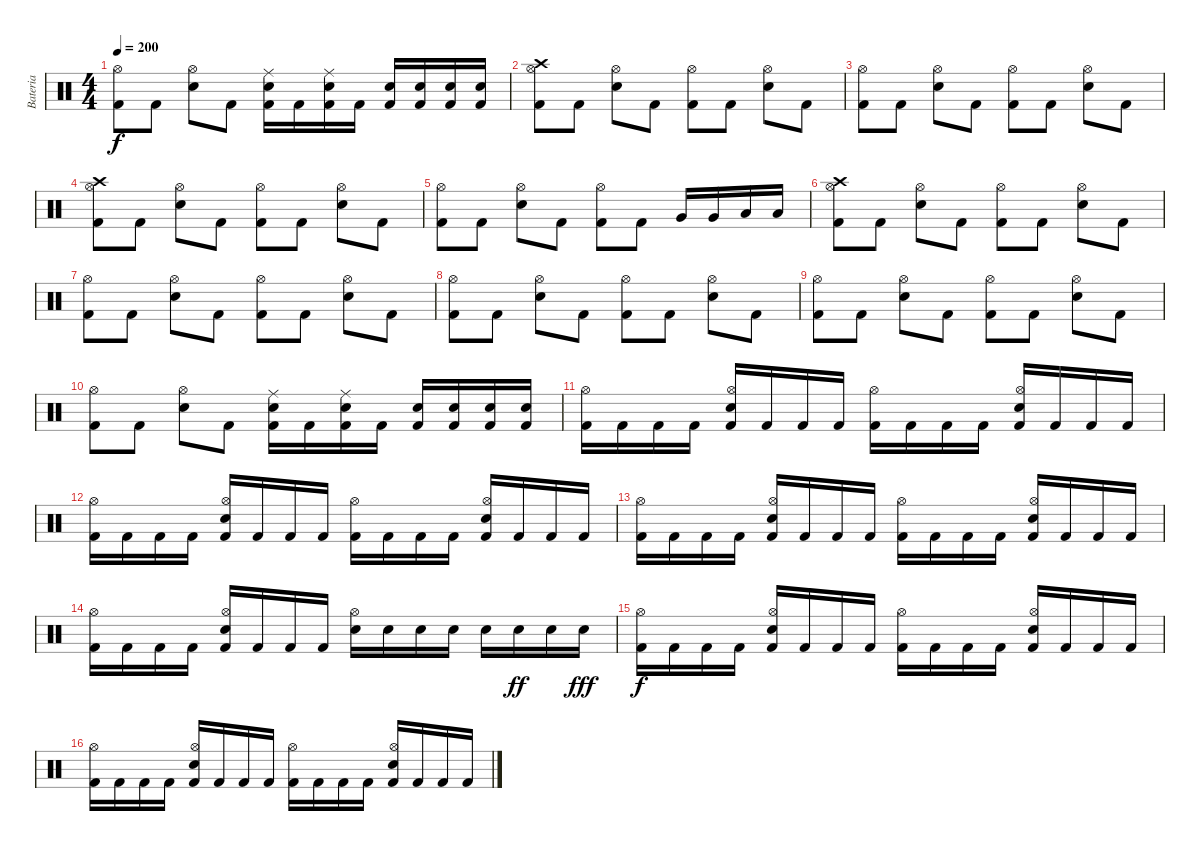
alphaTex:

\track ("Bateria" "Bateria") {instrument percussion}
\staff {score}
\articulation defaults
\ts (4 4)
\tempo 200
\clef neutral
\ks c
("Kick (hit) 2" "Hi-Hat (open)").8{dy f} "Kick (hit) 2".8 ("Electric Snare (hit)" "Hi-Hat (open)").8 "Kick (hit) 2".8 ("Kick (hit) 2" "Electric Snare (hit)" "Ride (middle)").16 "Kick (hit) 2".16 ("Kick (hit) 2" "Electric Snare (hit)" "Ride (middle)").16 "Kick (hit) 2".16 ("Kick (hit) 2" "Electric Snare (hit)").16 ("Kick (hit) 2" "Electric Snare (hit)").16 ("Kick (hit) 2" "Electric Snare (hit)").16 ("Kick (hit) 2" "Electric Snare (hit)").16 |
("Kick (hit) 2" "Hi-Hat (open)" "Crash high (hit)").8 "Kick (hit) 2".8 ("Electric Snare (hit)" "Hi-Hat (open)").8 "Kick (hit) 2".8 ("Kick (hit) 2" "Hi-Hat (open)").8 "Kick (hit) 2".8 ("Electric Snare (hit)" "Hi-Hat (open)").8 "Kick (hit) 2".8 |
("Kick (hit) 2" "Hi-Hat (open)").8 "Kick (hit) 2".8 ("Electric Snare (hit)" "Hi-Hat (open)").8 "Kick (hit) 2".8 ("Kick (hit) 2" "Hi-Hat (open)").8 "Kick (hit) 2".8 ("Electric Snare (hit)" "Hi-Hat (open)").8 "Kick (hit) 2".8 |
("Kick (hit) 2" "Hi-Hat (open)" "Crash high (hit)").8 "Kick (hit) 2".8 ("Electric Snare (hit)" "Hi-Hat (open)").8 "Kick (hit) 2".8 ("Kick (hit) 2" "Hi-Hat (open)").8 "Kick (hit) 2".8 ("Electric Snare (hit)" "Hi-Hat (open)").8 "Kick (hit) 2".8 |
("Kick (hit) 2" "Hi-Hat (open)").8 "Kick (hit) 2".8 ("Electric Snare (hit)" "Hi-Hat (open)").8 "Kick (hit) 2".8 ("Kick (hit) 2" "Hi-Hat (open)").8 "Kick (hit) 2".8 "Very Low Tom (hit)".16 "Very Low Tom (hit)".16 "Low Floor Tom (hit)".16 "Low Floor Tom (hit)".16 |
("Kick (hit) 2" "Hi-Hat (open)" "Crash high (hit)").8 "Kick (hit) 2".8 ("Electric Snare (hit)" "Hi-Hat (open)").8 "Kick (hit) 2".8 ("Kick (hit) 2" "Hi-Hat (open)").8 "Kick (hit) 2".8 ("Electric Snare (hit)" "Hi-Hat (open)").8 "Kick (hit) 2".8 |
("Kick (hit) 2" "Hi-Hat (open)").8 "Kick (hit) 2".8 ("Electric Snare (hit)" "Hi-Hat (open)").8 "Kick (hit) 2".8 ("Kick (hit) 2" "Hi-Hat (open)").8 "Kick (hit) 2".8 ("Electric Snare (hit)" "Hi-Hat (open)").8 "Kick (hit) 2".8 |
("Kick (hit) 2" "Hi-Hat (open)").8 "Kick (hit) 2".8 ("Electric Snare (hit)" "Hi-Hat (open)").8 "Kick (hit) 2".8 ("Kick (hit) 2" "Hi-Hat (open)").8 "Kick (hit) 2".8 ("Electric Snare (hit)" "Hi-Hat (open)").8 "Kick (hit) 2".8 |
("Kick (hit) 2" "Hi-Hat (open)").8 "Kick (hit) 2".8 ("Electric Snare (hit)" "Hi-Hat (open)").8 "Kick (hit) 2".8 ("Kick (hit) 2" "Hi-Hat (open)").8 "Kick (hit) 2".8 ("Electric Snare (hit)" "Hi-Hat (open)").8 "Kick (hit) 2".8 |
("Kick (hit) 2" "Hi-Hat (open)").8 "Kick (hit) 2".8 ("Electric Snare (hit)" "Hi-Hat (open)").8 "Kick (hit) 2".8 ("Kick (hit) 2" "Electric Snare (hit)" "Ride (middle)").16 "Kick (hit) 2".16 ("Kick (hit) 2" "Electric Snare (hit)" "Ride (middle)").16 "Kick (hit) 2".16 ("Kick (hit) 2" "Electric Snare (hit)").16 ("Kick (hit) 2" "Electric Snare (hit)").16 ("Kick (hit) 2" "Electric Snare (hit)").16 ("Kick (hit) 2" "Electric Snare (hit)").16 |
("Kick (hit) 2" "Hi-Hat (open)").16 "Kick (hit) 2".16 "Kick (hit) 2".16 "Kick (hit) 2".16 ("Kick (hit) 2" "Electric Snare (hit)" "Hi-Hat (open)").16 "Kick (hit) 2".16 "Kick (hit) 2".16 "Kick (hit) 2".16 ("Kick (hit) 2" "Hi-Hat (open)").16 "Kick (hit) 2".16 "Kick (hit) 2".16 "Kick (hit) 2".16 ("Kick (hit) 2" "Electric Snare (hit)" "Hi-Hat (open)").16 "Kick (hit) 2".16 "Kick (hit) 2".16 "Kick (hit) 2".16 |
("Kick (hit) 2" "Hi-Hat (open)").16 "Kick (hit) 2".16 "Kick (hit) 2".16 "Kick (hit) 2".16 ("Kick (hit) 2" "Electric Snare (hit)" "Hi-Hat (open)").16 "Kick (hit) 2".16 "Kick (hit) 2".16 "Kick (hit) 2".16 ("Kick (hit) 2" "Hi-Hat (open)").16 "Kick (hit) 2".16 "Kick (hit) 2".16 "Kick (hit) 2".16 ("Kick (hit) 2" "Electric Snare (hit)" "Hi-Hat (open)").16 "Kick (hit) 2".16 "Kick (hit) 2".16 "Kick (hit) 2".16 |
("Kick (hit) 2" "Hi-Hat (open)").16 "Kick (hit) 2".16 "Kick (hit) 2".16 "Kick (hit) 2".16 ("Kick (hit) 2" "Electric Snare (hit)" "Hi-Hat (open)").16 "Kick (hit) 2".16 "Kick (hit) 2".16 "Kick (hit) 2".16 ("Kick (hit) 2" "Hi-Hat (open)").16 "Kick (hit) 2".16 "Kick (hit) 2".16 "Kick (hit) 2".16 ("Kick (hit) 2" "Electric Snare (hit)" "Hi-Hat (open)").16 "Kick (hit) 2".16 "Kick (hit) 2".16 "Kick (hit) 2".16 |
("Kick (hit) 2" "Hi-Hat (open)").16 "Kick (hit) 2".16 "Kick (hit) 2".16 "Kick (hit) 2".16 ("Kick (hit) 2" "Electric Snare (hit)" "Hi-Hat (open)").16 "Kick (hit) 2".16 "Kick (hit) 2".16 "Kick (hit) 2".16 ("Electric Snare (hit)" "Hi-Hat (open)").16 "Electric Snare (hit)".16 "Electric Snare (hit)".16 "Electric Snare (hit)".16 "Electric Snare (hit)".16 "Electric Snare (hit)".16{dy ff} "Electric Snare (hit)".16 "Electric Snare (hit)".16{dy fff} |
("Kick (hit) 2" "Hi-Hat (open)").16{dy f} "Kick (hit) 2".16 "Kick (hit) 2".16 "Kick (hit) 2".16 ("Kick (hit) 2" "Electric Snare (hit)" "Hi-Hat (open)").16 "Kick (hit) 2".16 "Kick (hit) 2".16 "Kick (hit) 2".16 ("Kick (hit) 2" "Hi-Hat (open)").16 "Kick (hit) 2".16 "Kick (hit) 2".16 "Kick (hit) 2".16 ("Kick (hit) 2" "Electric Snare (hit)" "Hi-Hat (open)").16 "Kick (hit) 2".16 "Kick (hit) 2".16 "Kick (hit) 2".16 |
("Kick (hit) 2" "Hi-Hat (open)").16 "Kick (hit) 2".16 "Kick (hit) 2".16 "Kick (hit) 2".16 ("Kick (hit) 2" "Electric Snare (hit)" "Hi-Hat (open)").16 "Kick (hit) 2".16 "Kick (hit) 2".16 "Kick (hit) 2".16 ("Kick (hit) 2" "Hi-Hat (open)").16 "Kick (hit) 2".16 "Kick (hit) 2".16 "Kick (hit) 2".16 ("Kick (hit) 2" "Electric Snare (hit)" "Hi-Hat (open)").16 "Kick (hit) 2".16 "Kick (hit) 2".16 "Kick (hit) 2".16
